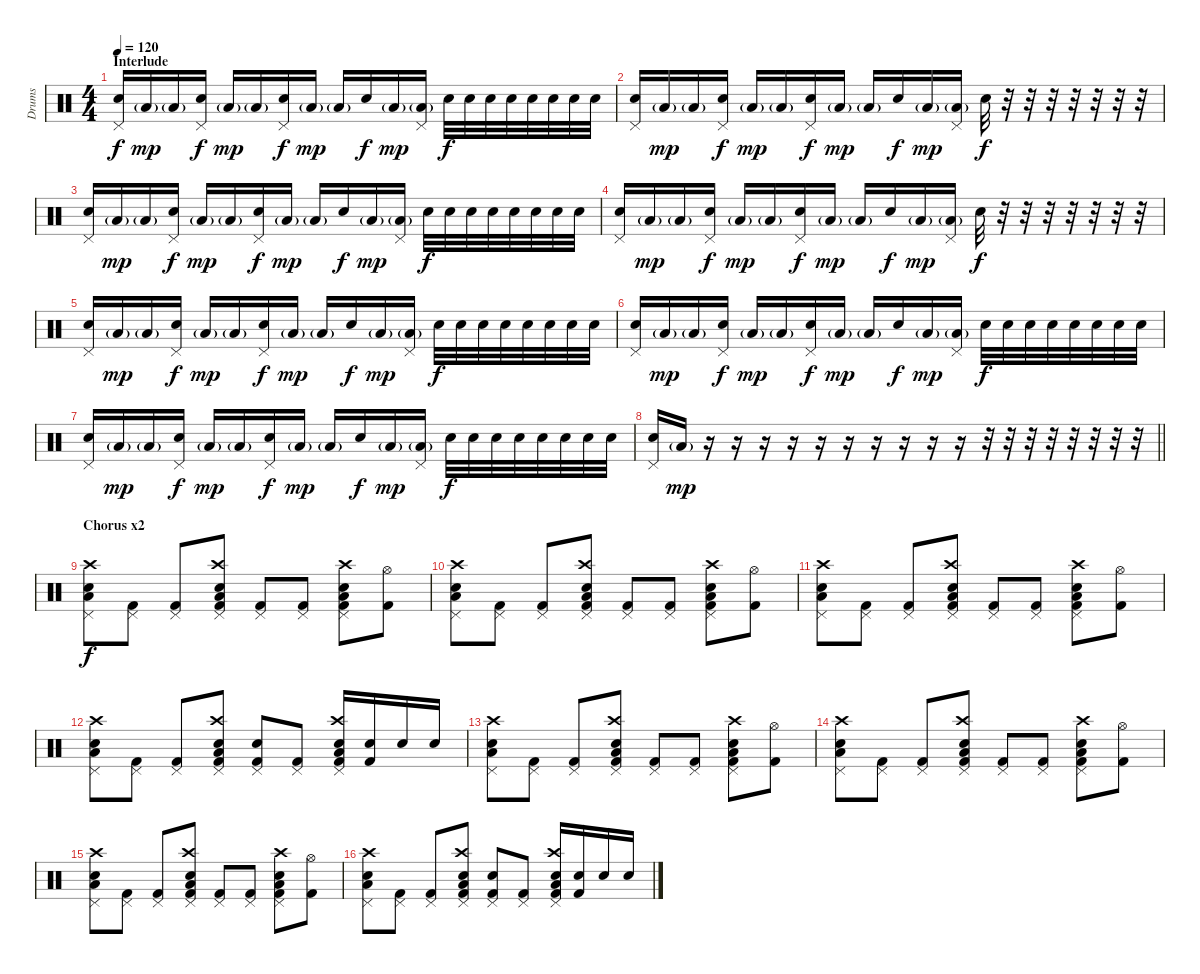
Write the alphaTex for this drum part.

\track ("Drums" "Drums") {instrument percussion}
\staff {score}
\articulation defaults
\ts (4 4)
\section ("" "Interlude")
\tempo 120
\clef neutral
\ks c
("Electric Snare (hit)" "Pedal Hi-Hat (hit)").16{dy f} "Low Tom (hit)"{g}.16{dy mp} "Low Tom (hit)"{g}.16 ("Electric Snare (hit)" "Pedal Hi-Hat (hit)").16{dy f} "Low Tom (hit)"{g}.16{dy mp} "Low Tom (hit)"{g}.16 ("Electric Snare (hit)" "Pedal Hi-Hat (hit)").16{dy f} "Low Tom (hit)"{g}.16{dy mp} "Low Tom (hit)"{g}.16 "Electric Snare (hit)".16{dy f} "Low Tom (hit)"{g}.16{dy mp} ("Low Tom (hit)"{g} "Pedal Hi-Hat (hit)").16 "Electric Snare (hit)".32{dy f} "Electric Snare (hit)".32 "Electric Snare (hit)".32 "Electric Snare (hit)".32 "Electric Snare (hit)".32 "Electric Snare (hit)".32 "Electric Snare (hit)".32 "Electric Snare (hit)".32 |
("Electric Snare (hit)" "Pedal Hi-Hat (hit)").16 "Low Tom (hit)"{g}.16{dy mp} "Low Tom (hit)"{g}.16 ("Electric Snare (hit)" "Pedal Hi-Hat (hit)").16{dy f} "Low Tom (hit)"{g}.16{dy mp} "Low Tom (hit)"{g}.16 ("Electric Snare (hit)" "Pedal Hi-Hat (hit)").16{dy f} "Low Tom (hit)"{g}.16{dy mp} "Low Tom (hit)"{g}.16 "Electric Snare (hit)".16{dy f} "Low Tom (hit)"{g}.16{dy mp} ("Low Tom (hit)"{g} "Pedal Hi-Hat (hit)").16 "Electric Snare (hit)".32{dy f} r.32 r.32 r.32 r.32 r.32 r.32 r.32 |
("Electric Snare (hit)" "Pedal Hi-Hat (hit)").16 "Low Tom (hit)"{g}.16{dy mp} "Low Tom (hit)"{g}.16 ("Electric Snare (hit)" "Pedal Hi-Hat (hit)").16{dy f} "Low Tom (hit)"{g}.16{dy mp} "Low Tom (hit)"{g}.16 ("Electric Snare (hit)" "Pedal Hi-Hat (hit)").16{dy f} "Low Tom (hit)"{g}.16{dy mp} "Low Tom (hit)"{g}.16 "Electric Snare (hit)".16{dy f} "Low Tom (hit)"{g}.16{dy mp} ("Low Tom (hit)"{g} "Pedal Hi-Hat (hit)").16 "Electric Snare (hit)".32{dy f} "Electric Snare (hit)".32 "Electric Snare (hit)".32 "Electric Snare (hit)".32 "Electric Snare (hit)".32 "Electric Snare (hit)".32 "Electric Snare (hit)".32 "Electric Snare (hit)".32 |
("Electric Snare (hit)" "Pedal Hi-Hat (hit)").16 "Low Tom (hit)"{g}.16{dy mp} "Low Tom (hit)"{g}.16 ("Electric Snare (hit)" "Pedal Hi-Hat (hit)").16{dy f} "Low Tom (hit)"{g}.16{dy mp} "Low Tom (hit)"{g}.16 ("Electric Snare (hit)" "Pedal Hi-Hat (hit)").16{dy f} "Low Tom (hit)"{g}.16{dy mp} "Low Tom (hit)"{g}.16 "Electric Snare (hit)".16{dy f} "Low Tom (hit)"{g}.16{dy mp} ("Low Tom (hit)"{g} "Pedal Hi-Hat (hit)").16 "Electric Snare (hit)".32{dy f} r.32 r.32 r.32 r.32 r.32 r.32 r.32 |
("Electric Snare (hit)" "Pedal Hi-Hat (hit)").16 "Low Tom (hit)"{g}.16{dy mp} "Low Tom (hit)"{g}.16 ("Electric Snare (hit)" "Pedal Hi-Hat (hit)").16{dy f} "Low Tom (hit)"{g}.16{dy mp} "Low Tom (hit)"{g}.16 ("Electric Snare (hit)" "Pedal Hi-Hat (hit)").16{dy f} "Low Tom (hit)"{g}.16{dy mp} "Low Tom (hit)"{g}.16 "Electric Snare (hit)".16{dy f} "Low Tom (hit)"{g}.16{dy mp} ("Low Tom (hit)"{g} "Pedal Hi-Hat (hit)").16 "Electric Snare (hit)".32{dy f} "Electric Snare (hit)".32 "Electric Snare (hit)".32 "Electric Snare (hit)".32 "Electric Snare (hit)".32 "Electric Snare (hit)".32 "Electric Snare (hit)".32 "Electric Snare (hit)".32 |
("Electric Snare (hit)" "Pedal Hi-Hat (hit)").16 "Low Tom (hit)"{g}.16{dy mp} "Low Tom (hit)"{g}.16 ("Electric Snare (hit)" "Pedal Hi-Hat (hit)").16{dy f} "Low Tom (hit)"{g}.16{dy mp} "Low Tom (hit)"{g}.16 ("Electric Snare (hit)" "Pedal Hi-Hat (hit)").16{dy f} "Low Tom (hit)"{g}.16{dy mp} "Low Tom (hit)"{g}.16 "Electric Snare (hit)".16{dy f} "Low Tom (hit)"{g}.16{dy mp} ("Low Tom (hit)"{g} "Pedal Hi-Hat (hit)").16 "Electric Snare (hit)".32{dy f} "Electric Snare (hit)".32 "Electric Snare (hit)".32 "Electric Snare (hit)".32 "Electric Snare (hit)".32 "Electric Snare (hit)".32 "Electric Snare (hit)".32 "Electric Snare (hit)".32 |
("Electric Snare (hit)" "Pedal Hi-Hat (hit)").16 "Low Tom (hit)"{g}.16{dy mp} "Low Tom (hit)"{g}.16 ("Electric Snare (hit)" "Pedal Hi-Hat (hit)").16{dy f} "Low Tom (hit)"{g}.16{dy mp} "Low Tom (hit)"{g}.16 ("Electric Snare (hit)" "Pedal Hi-Hat (hit)").16{dy f} "Low Tom (hit)"{g}.16{dy mp} "Low Tom (hit)"{g}.16 "Electric Snare (hit)".16{dy f} "Low Tom (hit)"{g}.16{dy mp} ("Low Tom (hit)"{g} "Pedal Hi-Hat (hit)").16 "Electric Snare (hit)".32{dy f} "Electric Snare (hit)".32 "Electric Snare (hit)".32 "Electric Snare (hit)".32 "Electric Snare (hit)".32 "Electric Snare (hit)".32 "Electric Snare (hit)".32 "Electric Snare (hit)".32 |
\barLineRight lightlight
("Electric Snare (hit)" "Pedal Hi-Hat (hit)").16 "Low Tom (hit)"{g}.16{dy mp} r.16 r.16 r.16 r.16 r.16 r.16 r.16 r.16 r.16 r.16 r.32 r.32 r.32 r.32 r.32 r.32 r.32 r.32 |
\section ("" "Chorus x2")
("Electric Snare (hit)" "Low Tom (hit)" "Pedal Hi-Hat (hit)" "Crash high (hit)").8{dy f volume 15} ("Kick (hit) 2" "Pedal Hi-Hat (hit)").8 ("Kick (hit) 2" "Pedal Hi-Hat (hit)").8 ("Kick (hit) 2" "Electric Snare (hit)" "Low Tom (hit)" "Pedal Hi-Hat (hit)" "Crash high (hit)").8 ("Kick (hit) 2" "Pedal Hi-Hat (hit)").8 ("Kick (hit) 2" "Pedal Hi-Hat (hit)").8 ("Kick (hit) 2" "Electric Snare (hit)" "Low Tom (hit)" "Pedal Hi-Hat (hit)" "Crash high (hit)").8 ("Kick (hit) 2" "Hi-Hat (open)").8 |
("Electric Snare (hit)" "Low Tom (hit)" "Pedal Hi-Hat (hit)" "Crash high (hit)").8 ("Kick (hit) 2" "Pedal Hi-Hat (hit)").8 ("Kick (hit) 2" "Pedal Hi-Hat (hit)").8 ("Kick (hit) 2" "Electric Snare (hit)" "Low Tom (hit)" "Pedal Hi-Hat (hit)" "Crash high (hit)").8 ("Kick (hit) 2" "Pedal Hi-Hat (hit)").8 ("Kick (hit) 2" "Pedal Hi-Hat (hit)").8 ("Kick (hit) 2" "Electric Snare (hit)" "Low Tom (hit)" "Pedal Hi-Hat (hit)" "Crash high (hit)").8 ("Kick (hit) 2" "Hi-Hat (open)").8 |
("Electric Snare (hit)" "Low Tom (hit)" "Pedal Hi-Hat (hit)" "Crash high (hit)").8 ("Kick (hit) 2" "Pedal Hi-Hat (hit)").8 ("Kick (hit) 2" "Pedal Hi-Hat (hit)").8 ("Kick (hit) 2" "Electric Snare (hit)" "Low Tom (hit)" "Pedal Hi-Hat (hit)" "Crash high (hit)").8 ("Kick (hit) 2" "Pedal Hi-Hat (hit)").8 ("Kick (hit) 2" "Pedal Hi-Hat (hit)").8 ("Kick (hit) 2" "Electric Snare (hit)" "Low Tom (hit)" "Pedal Hi-Hat (hit)" "Crash high (hit)").8 ("Kick (hit) 2" "Hi-Hat (open)").8 |
("Electric Snare (hit)" "Low Tom (hit)" "Pedal Hi-Hat (hit)" "Crash high (hit)").8 ("Kick (hit) 2" "Pedal Hi-Hat (hit)").8 ("Kick (hit) 2" "Pedal Hi-Hat (hit)").8 ("Kick (hit) 2" "Electric Snare (hit)" "Low Tom (hit)" "Pedal Hi-Hat (hit)" "Crash high (hit)").8 ("Kick (hit) 2" "Pedal Hi-Hat (hit)" "Electric Snare (hit)").8 ("Kick (hit) 2" "Pedal Hi-Hat (hit)").8 ("Kick (hit) 2" "Electric Snare (hit)" "Low Tom (hit)" "Pedal Hi-Hat (hit)" "Crash high (hit)").16 ("Kick (hit) 2" "Electric Snare (hit)").16 "Electric Snare (hit)".16 "Electric Snare (hit)".16 |
("Electric Snare (hit)" "Low Tom (hit)" "Pedal Hi-Hat (hit)" "Crash high (hit)").8 ("Kick (hit) 2" "Pedal Hi-Hat (hit)").8 ("Kick (hit) 2" "Pedal Hi-Hat (hit)").8 ("Kick (hit) 2" "Electric Snare (hit)" "Low Tom (hit)" "Pedal Hi-Hat (hit)" "Crash high (hit)").8 ("Kick (hit) 2" "Pedal Hi-Hat (hit)").8 ("Kick (hit) 2" "Pedal Hi-Hat (hit)").8 ("Kick (hit) 2" "Electric Snare (hit)" "Low Tom (hit)" "Pedal Hi-Hat (hit)" "Crash high (hit)").8 ("Kick (hit) 2" "Hi-Hat (open)").8 |
("Electric Snare (hit)" "Low Tom (hit)" "Pedal Hi-Hat (hit)" "Crash high (hit)").8 ("Kick (hit) 2" "Pedal Hi-Hat (hit)").8 ("Kick (hit) 2" "Pedal Hi-Hat (hit)").8 ("Kick (hit) 2" "Electric Snare (hit)" "Low Tom (hit)" "Pedal Hi-Hat (hit)" "Crash high (hit)").8 ("Kick (hit) 2" "Pedal Hi-Hat (hit)").8 ("Kick (hit) 2" "Pedal Hi-Hat (hit)").8 ("Kick (hit) 2" "Electric Snare (hit)" "Low Tom (hit)" "Pedal Hi-Hat (hit)" "Crash high (hit)").8 ("Kick (hit) 2" "Hi-Hat (open)").8 |
("Electric Snare (hit)" "Low Tom (hit)" "Pedal Hi-Hat (hit)" "Crash high (hit)").8 ("Kick (hit) 2" "Pedal Hi-Hat (hit)").8 ("Kick (hit) 2" "Pedal Hi-Hat (hit)").8 ("Kick (hit) 2" "Electric Snare (hit)" "Low Tom (hit)" "Pedal Hi-Hat (hit)" "Crash high (hit)").8 ("Kick (hit) 2" "Pedal Hi-Hat (hit)").8 ("Kick (hit) 2" "Pedal Hi-Hat (hit)").8 ("Kick (hit) 2" "Electric Snare (hit)" "Low Tom (hit)" "Pedal Hi-Hat (hit)" "Crash high (hit)").8 ("Kick (hit) 2" "Hi-Hat (open)").8 |
("Electric Snare (hit)" "Low Tom (hit)" "Pedal Hi-Hat (hit)" "Crash high (hit)").8 ("Kick (hit) 2" "Pedal Hi-Hat (hit)").8 ("Kick (hit) 2" "Pedal Hi-Hat (hit)").8 ("Kick (hit) 2" "Electric Snare (hit)" "Low Tom (hit)" "Pedal Hi-Hat (hit)" "Crash high (hit)").8 ("Kick (hit) 2" "Pedal Hi-Hat (hit)" "Electric Snare (hit)").8 ("Kick (hit) 2" "Pedal Hi-Hat (hit)").8 ("Kick (hit) 2" "Electric Snare (hit)" "Low Tom (hit)" "Pedal Hi-Hat (hit)" "Crash high (hit)").16 ("Kick (hit) 2" "Electric Snare (hit)").16 "Electric Snare (hit)".16 "Electric Snare (hit)".16
